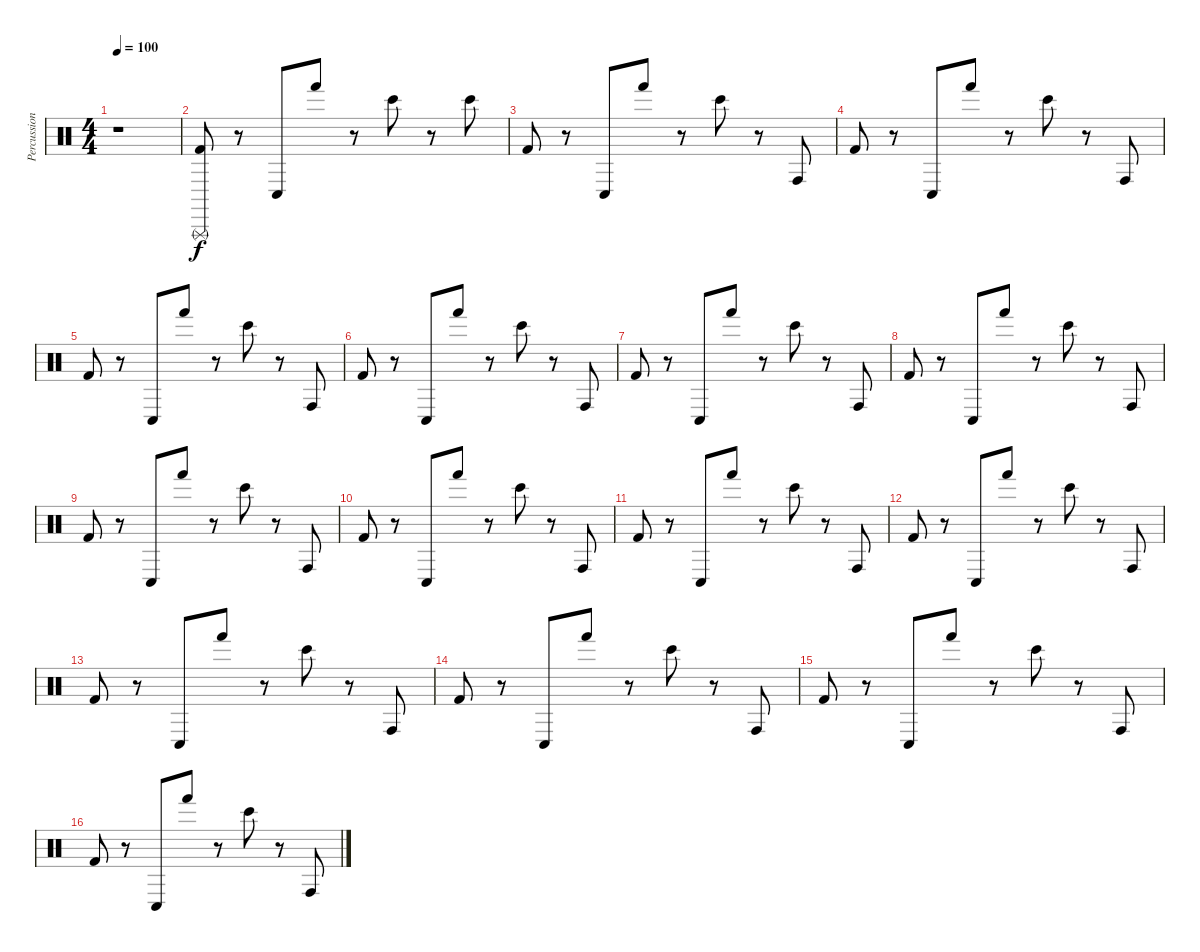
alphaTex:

\track ("Percussion" "Percussion") {instrument percussion}
\staff {score}
\articulation defaults
\ts (4 4)
\tempo 100
\clef neutral
\ks c
r.1{dy f} |
("Triangle (rnute)" "Kick (hit) 2").8 r.8 "Conga low (hit)".8 "Hand (hit)".8 r.8 "Bongo High (hit)".8 r.8 "Bongo High (hit)".8 |
"Kick (hit) 2".8 r.8 "Conga low (hit)".8 "Hand (hit)".8 r.8 "Bongo High (hit)".8 r.8 "Conga high (hit)".8 |
"Kick (hit) 2".8 r.8 "Conga low (hit)".8 "Hand (hit)".8 r.8 "Bongo High (hit)".8 r.8 "Conga high (hit)".8 |
"Kick (hit) 2".8 r.8 "Conga low (hit)".8 "Hand (hit)".8 r.8 "Bongo High (hit)".8 r.8 "Conga high (hit)".8 |
"Kick (hit) 2".8 r.8 "Conga low (hit)".8 "Hand (hit)".8 r.8 "Bongo High (hit)".8 r.8 "Conga high (hit)".8 |
"Kick (hit) 2".8 r.8 "Conga low (hit)".8 "Hand (hit)".8 r.8 "Bongo High (hit)".8 r.8 "Conga high (hit)".8 |
"Kick (hit) 2".8 r.8 "Conga low (hit)".8 "Hand (hit)".8 r.8 "Bongo High (hit)".8 r.8 "Conga high (hit)".8 |
"Kick (hit) 2".8 r.8 "Conga low (hit)".8 "Hand (hit)".8 r.8 "Bongo High (hit)".8 r.8 "Conga high (hit)".8 |
"Kick (hit) 2".8 r.8 "Conga low (hit)".8 "Hand (hit)".8 r.8 "Bongo High (hit)".8 r.8 "Conga high (hit)".8 |
"Kick (hit) 2".8 r.8 "Conga low (hit)".8 "Hand (hit)".8 r.8 "Bongo High (hit)".8 r.8 "Conga high (hit)".8 |
"Kick (hit) 2".8 r.8 "Conga low (hit)".8 "Hand (hit)".8 r.8 "Bongo High (hit)".8 r.8 "Conga high (hit)".8 |
"Kick (hit) 2".8 r.8 "Conga low (hit)".8 "Hand (hit)".8 r.8 "Bongo High (hit)".8 r.8 "Conga high (hit)".8 |
"Kick (hit) 2".8 r.8 "Conga low (hit)".8 "Hand (hit)".8 r.8 "Bongo High (hit)".8 r.8 "Conga high (hit)".8 |
"Kick (hit) 2".8 r.8 "Conga low (hit)".8 "Hand (hit)".8 r.8 "Bongo High (hit)".8 r.8 "Conga high (hit)".8 |
"Kick (hit) 2".8 r.8 "Conga low (hit)".8 "Hand (hit)".8 r.8 "Bongo High (hit)".8 r.8 "Conga high (hit)".8
